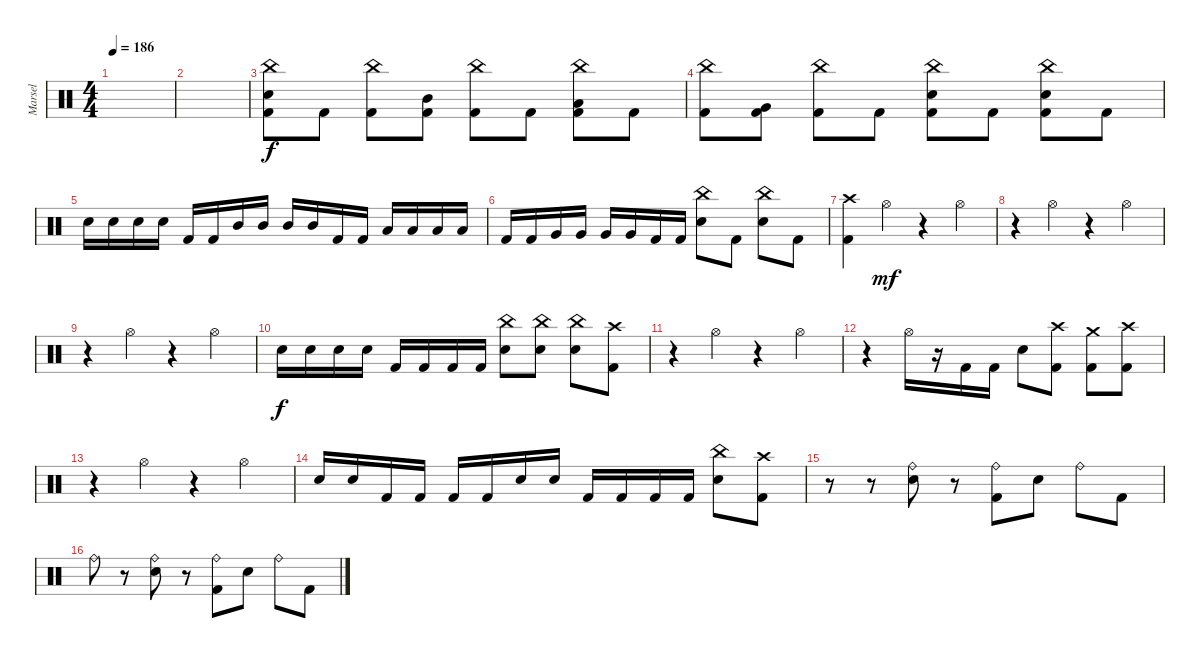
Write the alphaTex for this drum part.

\track ("Marsel" "Marsel") {mute instrument percussion}
\staff {score}
\articulation defaults
\ts (4 4)
\tempo 186
\clef neutral
\ks c
|
|
("China (hit)" "Snare (hit) 2" "Kick (hit) 2").8 "Kick (hit) 2".8 ("China (hit)" "Kick (hit) 2").8 ("Mid Tom (hit)" "Kick (hit) 2").8 ("China (hit)" "Kick (hit) 2").8 "Kick (hit) 2".8 ("China (hit)" "Low Tom (hit)" "Kick (hit) 2").8 "Kick (hit) 2".8 |
("China (hit)" "Kick (hit) 2").8 ("Very Low Tom (hit)" "Kick (hit) 2").8 ("China (hit)" "Kick (hit) 2").8 "Kick (hit) 2".8 ("China (hit)" "Snare (hit) 2" "Kick (hit) 2").8 "Kick (hit) 2".8 ("China (hit)" "Snare (hit) 2" "Kick (hit) 2").8 "Kick (hit) 2".8 |
"Snare (hit) 2".16 "Snare (hit) 2".16 "Snare (hit) 2".16 "Snare (hit) 2".16 "Kick (hit) 2".16 "Kick (hit) 2".16 "Mid Tom (hit)".16 "Mid Tom (hit)".16 "Mid Tom (hit)".16 "Mid Tom (hit)".16 "Kick (hit) 2".16 "Kick (hit) 2".16 "Low Tom (hit)".16 "Low Tom (hit)".16 "Low Tom (hit)".16 "Low Tom (hit)".16 |
"Kick (hit) 2".16 "Kick (hit) 2".16 "Very Low Tom (hit)".16 "Very Low Tom (hit)".16 "Very Low Tom (hit)".16 "Very Low Tom (hit)".16 "Kick (hit) 2".16 "Kick (hit) 2".16 ("China (hit)" "Snare (hit) 2").8 "Kick (hit) 2".8 ("China (hit)" "Snare (hit) 2").8 "Kick (hit) 2".8 |
("Crash high (hit)" "Kick (hit) 2").4 "Hi-Hat (open)".4{dy mf} r.4 "Hi-Hat (open)".4 |
r.4 "Hi-Hat (open)".4 r.4 "Hi-Hat (open)".4 |
r.4 "Hi-Hat (open)".4 r.4 "Hi-Hat (open)".4 |
"Snare (hit) 2".16{dy f} "Snare (hit) 2".16 "Snare (hit) 2".16 "Snare (hit) 2".16 "Kick (hit) 2".16 "Kick (hit) 2".16 "Kick (hit) 2".16 "Kick (hit) 2".16 ("China (hit)" "Snare (hit) 2").8 ("China (hit)" "Snare (hit) 2").8 ("China (hit)" "Snare (hit) 2").8 ("Crash high (hit)" "Kick (hit) 2").8 |
r.4 "Hi-Hat (open)".4 r.4 "Hi-Hat (open)".4 |
r.4 "Hi-Hat (open)".16 r.16 "Kick (hit) 2".16 "Kick (hit) 2".16 "Snare (hit) 2".8 ("Crash high (hit)" "Kick (hit) 2").8 ("Crash medium (hit)" "Kick (hit) 2").8 ("Crash high (hit)" "Kick (hit) 2").8 |
r.4 "Hi-Hat (open)".4 r.4 "Hi-Hat (open)".4 |
"Snare (hit) 2".16 "Snare (hit) 2".16 "Kick (hit) 2".16 "Kick (hit) 2".16 "Kick (hit) 2".16 "Kick (hit) 2".16 "Snare (hit) 2".16 "Snare (hit) 2".16 "Kick (hit) 2".16 "Kick (hit) 2".16 "Kick (hit) 2".16 "Kick (hit) 2".16 ("China (hit)" "Snare (hit) 2").8 ("Crash high (hit)" "Kick (hit) 2").8 |
r.8 r.8 ("Ride (bell)" "Snare (hit) 2").8 r.8 ("Ride (bell)" "Kick (hit) 2").8 "Snare (hit) 2".8 "Ride (bell)".8 "Kick (hit) 2".8 |
"Ride (bell)".8 r.8 ("Ride (bell)" "Snare (hit) 2").8 r.8 ("Ride (bell)" "Kick (hit) 2").8 "Snare (hit) 2".8 "Ride (bell)".8 "Kick (hit) 2".8
